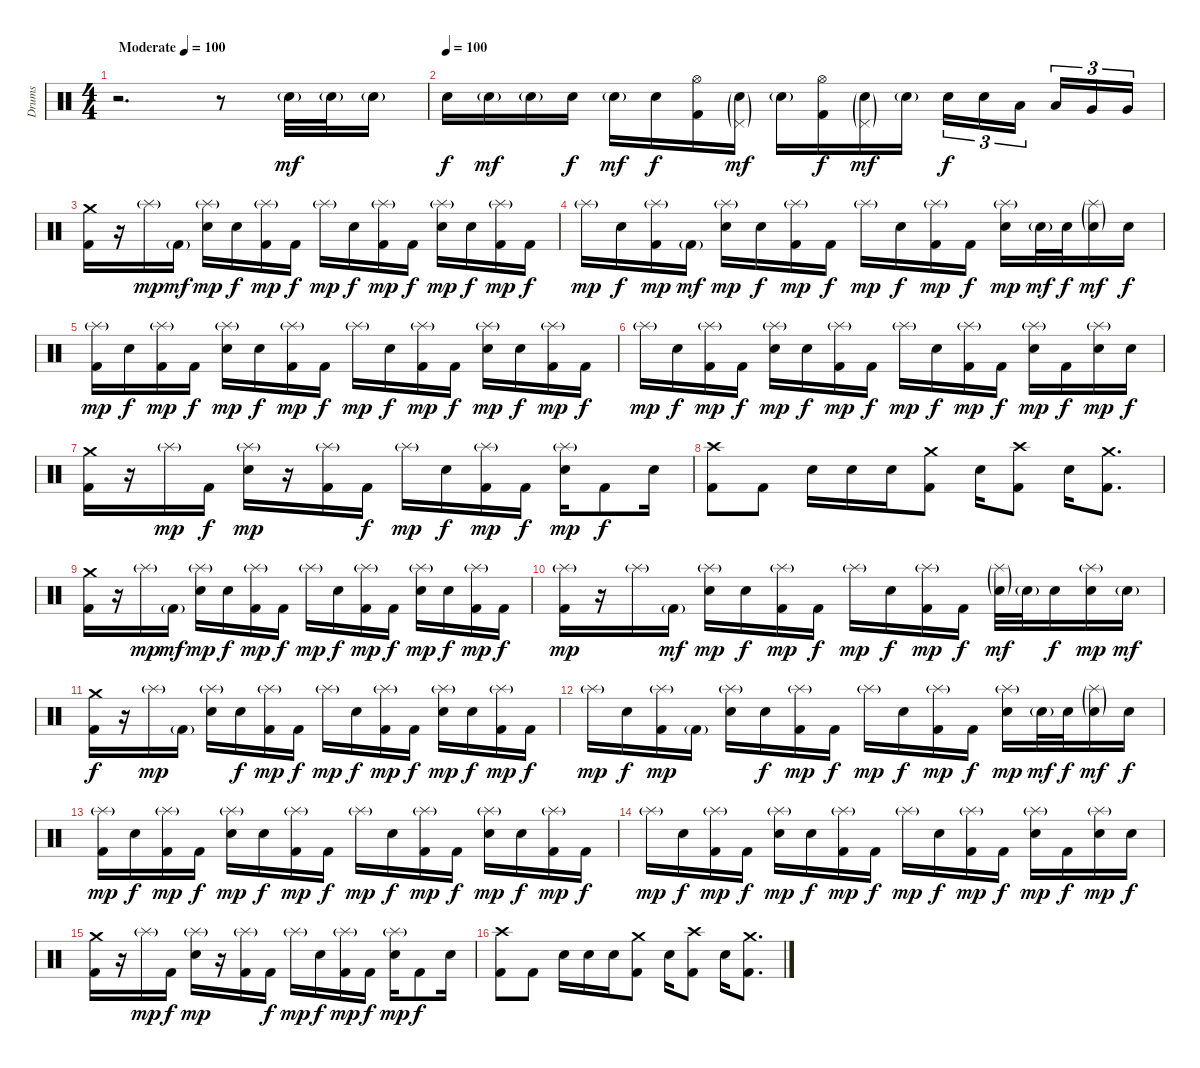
\track ("Drums" "Drums") {instrument percussion}
\staff {score}
\articulation defaults
\ts (4 4)
\tempo (100 "Moderate")
\clef neutral
\ks c
r.2{d dy mf} r.8 "Electric Snare (hit)"{g}.32 "Electric Snare (hit)"{g}.32 "Electric Snare (hit)"{g}.16 |
\tempo (100)
"Electric Snare (hit)".16{dy f} "Electric Snare (hit)"{g}.16{dy mf} "Electric Snare (hit)"{g}.16 "Electric Snare (hit)".16{dy f} "Electric Snare (hit)"{g}.16{dy mf} "Electric Snare (hit)".16{dy f} ("Hi-Hat (open)" "Kick (hit) 2").16 ("Pedal Hi-Hat (hit)"{g} "Electric Snare (hit)"{g}).16{dy mf} "Electric Snare (hit)"{g}.16 ("Hi-Hat (open)" "Kick (hit) 2").16{dy f} ("Pedal Hi-Hat (hit)"{g} "Electric Snare (hit)"{g}).16{dy mf} "Electric Snare (hit)"{g}.16 "Electric Snare (hit)".16{tu (3 2) dy f} "Electric Snare (hit)".16{tu (3 2)} "Low Tom (hit)".16{tu (3 2) beam splitsecondary} "Low Tom (hit)".16{tu (3 2)} "Very Low Tom (hit)".16{tu (3 2)} "Very Low Tom (hit)".16{tu (3 2)} |
("Crash medium (hit)" "Kick (hit) 2").16 r.16 "Splash (hit)"{g}.16{dy mp} "Kick (hit) 2"{g}.16{dy mf} ("Splash (hit)"{g} "Electric Snare (hit)").16{dy mp} "Electric Snare (hit)".16{dy f} ("Splash (hit)"{g} "Kick (hit) 2").16{dy mp} "Kick (hit) 2".16{dy f} "Splash (hit)"{g}.16{dy mp} "Electric Snare (hit)".16{dy f} ("Splash (hit)"{g} "Kick (hit) 2").16{dy mp} "Kick (hit) 2".16{dy f} ("Splash (hit)"{g} "Electric Snare (hit)").16{dy mp} "Electric Snare (hit)".16{dy f} ("Splash (hit)"{g} "Kick (hit) 2").16{dy mp} "Kick (hit) 2".16{dy f} |
"Splash (hit)"{g}.16{dy mp} "Electric Snare (hit)".16{dy f} ("Splash (hit)"{g} "Kick (hit) 2").16{dy mp} "Kick (hit) 2"{g}.16{dy mf} ("Splash (hit)"{g} "Electric Snare (hit)").16{dy mp} "Electric Snare (hit)".16{dy f} ("Splash (hit)"{g} "Kick (hit) 2").16{dy mp} "Kick (hit) 2".16{dy f} "Splash (hit)"{g}.16{dy mp} "Electric Snare (hit)".16{dy f} ("Splash (hit)"{g} "Kick (hit) 2").16{dy mp} "Kick (hit) 2".16{dy f} ("Splash (hit)"{g} "Electric Snare (hit)").16{dy mp} "Electric Snare (hit)"{g}.32{dy mf} "Electric Snare (hit)".32{dy f} ("Splash (hit)"{g} "Electric Snare (hit)"{g}).16{dy mf} "Electric Snare (hit)".16{dy f} |
("Splash (hit)"{g} "Kick (hit) 2").16{dy mp} "Electric Snare (hit)".16{dy f} ("Splash (hit)"{g} "Kick (hit) 2").16{dy mp} "Kick (hit) 2".16{dy f} ("Splash (hit)"{g} "Electric Snare (hit)").16{dy mp} "Electric Snare (hit)".16{dy f} ("Splash (hit)"{g} "Kick (hit) 2").16{dy mp} "Kick (hit) 2".16{dy f} "Splash (hit)"{g}.16{dy mp} "Electric Snare (hit)".16{dy f} ("Splash (hit)"{g} "Kick (hit) 2").16{dy mp} "Kick (hit) 2".16{dy f} ("Splash (hit)"{g} "Electric Snare (hit)").16{dy mp} "Electric Snare (hit)".16{dy f} ("Splash (hit)"{g} "Kick (hit) 2").16{dy mp} "Kick (hit) 2".16{dy f} |
"Splash (hit)"{g}.16{dy mp} "Electric Snare (hit)".16{dy f} ("Splash (hit)"{g} "Kick (hit) 2").16{dy mp} "Kick (hit) 2".16{dy f} ("Splash (hit)"{g} "Electric Snare (hit)").16{dy mp} "Electric Snare (hit)".16{dy f} ("Splash (hit)"{g} "Kick (hit) 2").16{dy mp} "Kick (hit) 2".16{dy f} "Splash (hit)"{g}.16{dy mp} "Electric Snare (hit)".16{dy f} ("Splash (hit)"{g} "Kick (hit) 2").16{dy mp} "Kick (hit) 2".16{dy f} ("Splash (hit)"{g} "Electric Snare (hit)").16{dy mp} "Kick (hit) 2".16{dy f} ("Splash (hit)"{g} "Electric Snare (hit)").16{dy mp} "Electric Snare (hit)".16{dy f} |
("Crash medium (hit)" "Kick (hit) 2").16 r.16 "Splash (hit)"{g}.16{dy mp} "Kick (hit) 2".16{dy f} ("Splash (hit)"{g} "Electric Snare (hit)").16{dy mp} r.16 ("Splash (hit)"{g} "Kick (hit) 2").16 "Kick (hit) 2".16{dy f} "Splash (hit)"{g}.16{dy mp} "Electric Snare (hit)".16{dy f} ("Splash (hit)"{g} "Kick (hit) 2").16{dy mp} "Kick (hit) 2".16{dy f} ("Splash (hit)"{g} "Electric Snare (hit)").16{dy mp} "Kick (hit) 2".8{dy f} "Electric Snare (hit)".16 |
("Crash high (hit)" "Kick (hit) 2").8 "Kick (hit) 2".8 "Electric Snare (hit)".16 "Electric Snare (hit)".16 "Electric Snare (hit)".16 ("Crash medium (hit)" "Kick (hit) 2").8 "Electric Snare (hit)".16 ("Crash high (hit)" "Kick (hit) 2").8 "Electric Snare (hit)".16 ("Crash medium (hit)" "Kick (hit) 2").8{d} |
("Crash medium (hit)" "Kick (hit) 2").16 r.16 "Splash (hit)"{g}.16{dy mp} "Kick (hit) 2"{g}.16{dy mf} ("Splash (hit)"{g} "Electric Snare (hit)").16{dy mp} "Electric Snare (hit)".16{dy f} ("Splash (hit)"{g} "Kick (hit) 2").16{dy mp} "Kick (hit) 2".16{dy f} "Splash (hit)"{g}.16{dy mp} "Electric Snare (hit)".16{dy f} ("Splash (hit)"{g} "Kick (hit) 2").16{dy mp} "Kick (hit) 2".16{dy f} ("Splash (hit)"{g} "Electric Snare (hit)").16{dy mp} "Electric Snare (hit)".16{dy f} ("Splash (hit)"{g} "Kick (hit) 2").16{dy mp} "Kick (hit) 2".16{dy f} |
("Splash (hit)"{g} "Kick (hit) 2").16{dy mp} r.16 "Splash (hit)"{g}.16 "Kick (hit) 2"{g}.16{dy mf} ("Splash (hit)"{g} "Electric Snare (hit)").16{dy mp} "Electric Snare (hit)".16{dy f} ("Splash (hit)"{g} "Kick (hit) 2").16{dy mp} "Kick (hit) 2".16{dy f} "Splash (hit)"{g}.16{dy mp} "Electric Snare (hit)".16{dy f} ("Splash (hit)"{g} "Kick (hit) 2").16{dy mp} "Kick (hit) 2".16{dy f} ("Splash (hit)"{g} "Electric Snare (hit)"{g}).32{dy mf} "Electric Snare (hit)"{g}.32 "Electric Snare (hit)".16{dy f} ("Splash (hit)"{g} "Electric Snare (hit)").16{dy mp} "Electric Snare (hit)"{g}.16{dy mf} |
("Crash medium (hit)" "Kick (hit) 2").16{dy f} r.16 "Splash (hit)"{g}.16{dy mp} "Kick (hit) 2"{g}.16 ("Splash (hit)"{g} "Electric Snare (hit)").16 "Electric Snare (hit)".16{dy f} ("Splash (hit)"{g} "Kick (hit) 2").16{dy mp} "Kick (hit) 2".16{dy f} "Splash (hit)"{g}.16{dy mp} "Electric Snare (hit)".16{dy f} ("Splash (hit)"{g} "Kick (hit) 2").16{dy mp} "Kick (hit) 2".16{dy f} ("Splash (hit)"{g} "Electric Snare (hit)").16{dy mp} "Electric Snare (hit)".16{dy f} ("Splash (hit)"{g} "Kick (hit) 2").16{dy mp} "Kick (hit) 2".16{dy f} |
"Splash (hit)"{g}.16{dy mp} "Electric Snare (hit)".16{dy f} ("Splash (hit)"{g} "Kick (hit) 2").16{dy mp} "Kick (hit) 2"{g}.16 ("Splash (hit)"{g} "Electric Snare (hit)").16 "Electric Snare (hit)".16{dy f} ("Splash (hit)"{g} "Kick (hit) 2").16{dy mp} "Kick (hit) 2".16{dy f} "Splash (hit)"{g}.16{dy mp} "Electric Snare (hit)".16{dy f} ("Splash (hit)"{g} "Kick (hit) 2").16{dy mp} "Kick (hit) 2".16{dy f} ("Splash (hit)"{g} "Electric Snare (hit)").16{dy mp} "Electric Snare (hit)"{g}.32{dy mf} "Electric Snare (hit)".32{dy f} ("Splash (hit)"{g} "Electric Snare (hit)"{g}).16{dy mf} "Electric Snare (hit)".16{dy f} |
("Splash (hit)"{g} "Kick (hit) 2").16{dy mp} "Electric Snare (hit)".16{dy f} ("Splash (hit)"{g} "Kick (hit) 2").16{dy mp} "Kick (hit) 2".16{dy f} ("Splash (hit)"{g} "Electric Snare (hit)").16{dy mp} "Electric Snare (hit)".16{dy f} ("Splash (hit)"{g} "Kick (hit) 2").16{dy mp} "Kick (hit) 2".16{dy f} "Splash (hit)"{g}.16{dy mp} "Electric Snare (hit)".16{dy f} ("Splash (hit)"{g} "Kick (hit) 2").16{dy mp} "Kick (hit) 2".16{dy f} ("Splash (hit)"{g} "Electric Snare (hit)").16{dy mp} "Electric Snare (hit)".16{dy f} ("Splash (hit)"{g} "Kick (hit) 2").16{dy mp} "Kick (hit) 2".16{dy f} |
"Splash (hit)"{g}.16{dy mp} "Electric Snare (hit)".16{dy f} ("Splash (hit)"{g} "Kick (hit) 2").16{dy mp} "Kick (hit) 2".16{dy f} ("Splash (hit)"{g} "Electric Snare (hit)").16{dy mp} "Electric Snare (hit)".16{dy f} ("Splash (hit)"{g} "Kick (hit) 2").16{dy mp} "Kick (hit) 2".16{dy f} "Splash (hit)"{g}.16{dy mp} "Electric Snare (hit)".16{dy f} ("Splash (hit)"{g} "Kick (hit) 2").16{dy mp} "Kick (hit) 2".16{dy f} ("Splash (hit)"{g} "Electric Snare (hit)").16{dy mp} "Kick (hit) 2".16{dy f} ("Splash (hit)"{g} "Electric Snare (hit)").16{dy mp} "Electric Snare (hit)".16{dy f} |
("Crash medium (hit)" "Kick (hit) 2").16 r.16 "Splash (hit)"{g}.16{dy mp} "Kick (hit) 2".16{dy f} ("Splash (hit)"{g} "Electric Snare (hit)").16{dy mp} r.16 ("Splash (hit)"{g} "Kick (hit) 2").16 "Kick (hit) 2".16{dy f} "Splash (hit)"{g}.16{dy mp} "Electric Snare (hit)".16{dy f} ("Splash (hit)"{g} "Kick (hit) 2").16{dy mp} "Kick (hit) 2".16{dy f} ("Splash (hit)"{g} "Electric Snare (hit)").16{dy mp} "Kick (hit) 2".8{dy f} "Electric Snare (hit)".16 |
("Crash high (hit)" "Kick (hit) 2").8 "Kick (hit) 2".8 "Electric Snare (hit)".16 "Electric Snare (hit)".16 "Electric Snare (hit)".16 ("Crash medium (hit)" "Kick (hit) 2").8 "Electric Snare (hit)".16 ("Crash high (hit)" "Kick (hit) 2").8 "Electric Snare (hit)".16 ("Crash medium (hit)" "Kick (hit) 2").8{d}
